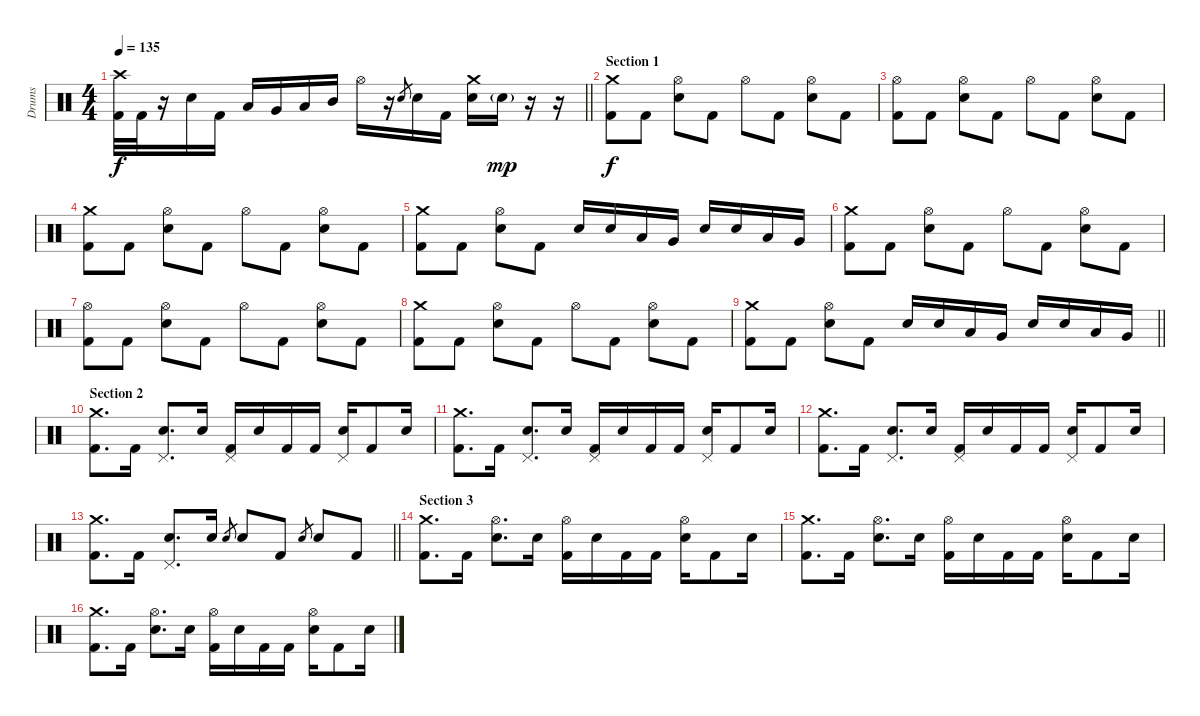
\track ("Drums" "Drums") {instrument percussion}
\staff {score}
\articulation defaults
\ts (4 4)
\tempo 135
\clef neutral
\barLineRight lightlight
\ks c
("Crash high (hit)" "Kick (hit) 2").32{dy f} "Kick (hit) 2".32 r.16 "Electric Snare (hit)".16 "Kick (hit) 2".16 "Low Floor Tom (hit)".16 "Very Low Tom (hit)".16 "Low Tom (hit)".16 "Mid Tom (hit)".16 "Hi-Hat (open)".16 r.16 "Electric Snare (hit)".8{gr} "Electric Snare (hit)".16 "Kick (hit) 2".16 ("Crash medium (hit)" "Electric Snare (hit)").16 "Electric Snare (hit)"{g}.16{dy mp} r.16 r.16 |
\section ("" "Section 1")
("Crash medium (hit)" "Kick (hit) 2").8{dy f} "Kick (hit) 2".8 ("Hi-Hat (open)" "Electric Snare (hit)").8 "Kick (hit) 2".8 "Hi-Hat (open)".8 "Kick (hit) 2".8 ("Hi-Hat (open)" "Electric Snare (hit)").8 "Kick (hit) 2".8 |
("Hi-Hat (open)" "Kick (hit) 2").8 "Kick (hit) 2".8 ("Hi-Hat (open)" "Electric Snare (hit)").8 "Kick (hit) 2".8 "Hi-Hat (open)".8 "Kick (hit) 2".8 ("Hi-Hat (open)" "Electric Snare (hit)").8 "Kick (hit) 2".8 |
("Crash medium (hit)" "Kick (hit) 2").8 "Kick (hit) 2".8 ("Hi-Hat (open)" "Electric Snare (hit)").8 "Kick (hit) 2".8 "Hi-Hat (open)".8 "Kick (hit) 2".8 ("Hi-Hat (open)" "Electric Snare (hit)").8 "Kick (hit) 2".8 |
("Crash medium (hit)" "Kick (hit) 2").8 "Kick (hit) 2".8 ("Hi-Hat (open)" "Electric Snare (hit)").8 "Kick (hit) 2".8 "Electric Snare (hit)".16 "Electric Snare (hit)".16 "Low Tom (hit)".16 "Very Low Tom (hit)".16 "Electric Snare (hit)".16 "Electric Snare (hit)".16 "Low Tom (hit)".16 "Very Low Tom (hit)".16 |
("Crash medium (hit)" "Kick (hit) 2").8 "Kick (hit) 2".8 ("Hi-Hat (open)" "Electric Snare (hit)").8 "Kick (hit) 2".8 "Hi-Hat (open)".8 "Kick (hit) 2".8 ("Hi-Hat (open)" "Electric Snare (hit)").8 "Kick (hit) 2".8 |
("Hi-Hat (open)" "Kick (hit) 2").8 "Kick (hit) 2".8 ("Hi-Hat (open)" "Electric Snare (hit)").8 "Kick (hit) 2".8 "Hi-Hat (open)".8 "Kick (hit) 2".8 ("Hi-Hat (open)" "Electric Snare (hit)").8 "Kick (hit) 2".8 |
("Crash medium (hit)" "Kick (hit) 2").8 "Kick (hit) 2".8 ("Hi-Hat (open)" "Electric Snare (hit)").8 "Kick (hit) 2".8 "Hi-Hat (open)".8 "Kick (hit) 2".8 ("Hi-Hat (open)" "Electric Snare (hit)").8 "Kick (hit) 2".8 |
\barLineRight lightlight
("Crash medium (hit)" "Kick (hit) 2").8 "Kick (hit) 2".8 ("Hi-Hat (open)" "Electric Snare (hit)").8 "Kick (hit) 2".8 "Electric Snare (hit)".16 "Electric Snare (hit)".16 "Low Tom (hit)".16 "Very Low Tom (hit)".16 "Electric Snare (hit)".16 "Electric Snare (hit)".16 "Low Tom (hit)".16 "Very Low Tom (hit)".16 |
\section ("" "Section 2")
("Crash medium (hit)" "Kick (hit) 2").8{d} "Kick (hit) 2".16 ("Pedal Hi-Hat (hit)" "Electric Snare (hit)").8{d} "Electric Snare (hit)".16 ("Pedal Hi-Hat (hit)" "Kick (hit) 2").16 "Electric Snare (hit)".16 "Kick (hit) 2".16 "Kick (hit) 2".16 ("Pedal Hi-Hat (hit)" "Electric Snare (hit)").16 "Kick (hit) 2".8 "Electric Snare (hit)".16 |
("Crash medium (hit)" "Kick (hit) 2").8{d} "Kick (hit) 2".16 ("Pedal Hi-Hat (hit)" "Electric Snare (hit)").8{d} "Electric Snare (hit)".16 ("Pedal Hi-Hat (hit)" "Kick (hit) 2").16 "Electric Snare (hit)".16 "Kick (hit) 2".16 "Kick (hit) 2".16 ("Pedal Hi-Hat (hit)" "Electric Snare (hit)").16 "Kick (hit) 2".8 "Electric Snare (hit)".16 |
("Crash medium (hit)" "Kick (hit) 2").8{d} "Kick (hit) 2".16 ("Pedal Hi-Hat (hit)" "Electric Snare (hit)").8{d} "Electric Snare (hit)".16 ("Pedal Hi-Hat (hit)" "Kick (hit) 2").16 "Electric Snare (hit)".16 "Kick (hit) 2".16 "Kick (hit) 2".16 ("Pedal Hi-Hat (hit)" "Electric Snare (hit)").16 "Kick (hit) 2".8 "Electric Snare (hit)".16 |
\barLineRight lightlight
("Crash medium (hit)" "Kick (hit) 2").8{d} "Kick (hit) 2".16 ("Pedal Hi-Hat (hit)" "Electric Snare (hit)").8{d} "Electric Snare (hit)".16 "Electric Snare (hit)".8{gr} "Electric Snare (hit)".8 "Kick (hit) 2".8 "Electric Snare (hit)".8{gr} "Electric Snare (hit)".8 "Kick (hit) 2".8 |
\section ("" "Section 3")
("Crash medium (hit)" "Kick (hit) 2").8{d} "Kick (hit) 2".16 ("Hi-Hat (open)" "Electric Snare (hit)").8{d} "Electric Snare (hit)".16 ("Hi-Hat (open)" "Kick (hit) 2").16 "Electric Snare (hit)".16 "Kick (hit) 2".16 "Kick (hit) 2".16 ("Hi-Hat (open)" "Electric Snare (hit)").16 "Kick (hit) 2".8 "Electric Snare (hit)".16 |
("Crash medium (hit)" "Kick (hit) 2").8{d} "Kick (hit) 2".16 ("Hi-Hat (open)" "Electric Snare (hit)").8{d} "Electric Snare (hit)".16 ("Hi-Hat (open)" "Kick (hit) 2").16 "Electric Snare (hit)".16 "Kick (hit) 2".16 "Kick (hit) 2".16 ("Hi-Hat (open)" "Electric Snare (hit)").16 "Kick (hit) 2".8 "Electric Snare (hit)".16 |
("Crash medium (hit)" "Kick (hit) 2").8{d} "Kick (hit) 2".16 ("Hi-Hat (open)" "Electric Snare (hit)").8{d} "Electric Snare (hit)".16 ("Hi-Hat (open)" "Kick (hit) 2").16 "Electric Snare (hit)".16 "Kick (hit) 2".16 "Kick (hit) 2".16 ("Hi-Hat (open)" "Electric Snare (hit)").16 "Kick (hit) 2".8 "Electric Snare (hit)".16
